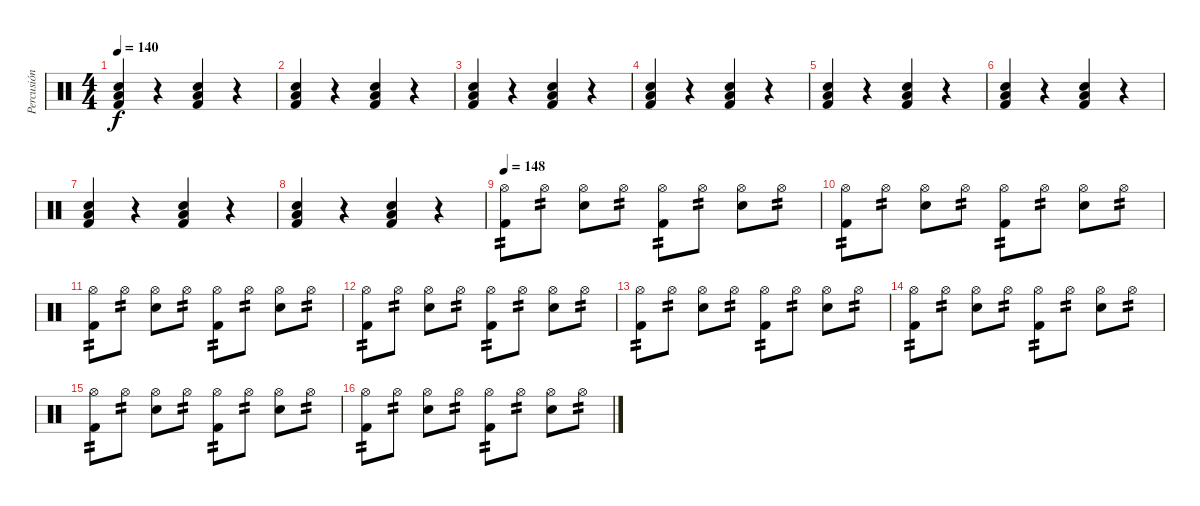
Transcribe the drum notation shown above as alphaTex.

\track ("Percusión" "Percusión") {instrument percussion}
\staff {score}
\articulation defaults
\ts (4 4)
\tempo 140
\clef neutral
\ks c
("Low Floor Tom (hit)" "Electric Snare (hit)" "Kick (hit) 2").4{dy f} r.4 ("Low Floor Tom (hit)" "Electric Snare (hit)" "Kick (hit) 2").4 r.4 |
("Low Floor Tom (hit)" "Electric Snare (hit)" "Kick (hit) 2").4 r.4 ("Low Floor Tom (hit)" "Electric Snare (hit)" "Kick (hit) 2").4 r.4 |
("Low Floor Tom (hit)" "Electric Snare (hit)" "Kick (hit) 2").4 r.4 ("Low Floor Tom (hit)" "Electric Snare (hit)" "Kick (hit) 2").4 r.4 |
("Low Floor Tom (hit)" "Electric Snare (hit)" "Kick (hit) 2").4 r.4 ("Low Floor Tom (hit)" "Electric Snare (hit)" "Kick (hit) 2").4 r.4 |
("Low Floor Tom (hit)" "Electric Snare (hit)" "Kick (hit) 2").4 r.4 ("Low Floor Tom (hit)" "Electric Snare (hit)" "Kick (hit) 2").4 r.4 |
("Low Floor Tom (hit)" "Electric Snare (hit)" "Kick (hit) 2").4 r.4 ("Low Floor Tom (hit)" "Electric Snare (hit)" "Kick (hit) 2").4 r.4 |
("Low Floor Tom (hit)" "Electric Snare (hit)" "Kick (hit) 2").4 r.4 ("Low Floor Tom (hit)" "Electric Snare (hit)" "Kick (hit) 2").4 r.4 |
("Low Floor Tom (hit)" "Electric Snare (hit)" "Kick (hit) 2").4 r.4 ("Low Floor Tom (hit)" "Electric Snare (hit)" "Kick (hit) 2").4 r.4 |
\tempo 148
("Hi-Hat (open)" "Kick (hit) 2").8{tp 2} "Hi-Hat (open)".8{tp 2} ("Hi-Hat (open)" "Electric Snare (hit)").8 "Hi-Hat (open)".8{tp 2} ("Hi-Hat (open)" "Kick (hit) 2").8{tp 2} "Hi-Hat (open)".8{tp 2} ("Hi-Hat (open)" "Electric Snare (hit)").8 "Hi-Hat (open)".8{tp 2} |
("Hi-Hat (open)" "Kick (hit) 2").8{tp 2} "Hi-Hat (open)".8{tp 2} ("Hi-Hat (open)" "Electric Snare (hit)").8 "Hi-Hat (open)".8{tp 2} ("Hi-Hat (open)" "Kick (hit) 2").8{tp 2} "Hi-Hat (open)".8{tp 2} ("Hi-Hat (open)" "Electric Snare (hit)").8 "Hi-Hat (open)".8{tp 2} |
("Hi-Hat (open)" "Kick (hit) 2").8{tp 2} "Hi-Hat (open)".8{tp 2} ("Hi-Hat (open)" "Electric Snare (hit)").8 "Hi-Hat (open)".8{tp 2} ("Hi-Hat (open)" "Kick (hit) 2").8{tp 2} "Hi-Hat (open)".8{tp 2} ("Hi-Hat (open)" "Electric Snare (hit)").8 "Hi-Hat (open)".8{tp 2} |
("Hi-Hat (open)" "Kick (hit) 2").8{tp 2} "Hi-Hat (open)".8{tp 2} ("Hi-Hat (open)" "Electric Snare (hit)").8 "Hi-Hat (open)".8{tp 2} ("Hi-Hat (open)" "Kick (hit) 2").8{tp 2} "Hi-Hat (open)".8{tp 2} ("Hi-Hat (open)" "Electric Snare (hit)").8 "Hi-Hat (open)".8{tp 2} |
("Hi-Hat (open)" "Kick (hit) 2").8{tp 2} "Hi-Hat (open)".8{tp 2} ("Hi-Hat (open)" "Electric Snare (hit)").8 "Hi-Hat (open)".8{tp 2} ("Hi-Hat (open)" "Kick (hit) 2").8{tp 2} "Hi-Hat (open)".8{tp 2} ("Hi-Hat (open)" "Electric Snare (hit)").8 "Hi-Hat (open)".8{tp 2} |
("Hi-Hat (open)" "Kick (hit) 2").8{tp 2} "Hi-Hat (open)".8{tp 2} ("Hi-Hat (open)" "Electric Snare (hit)").8 "Hi-Hat (open)".8{tp 2} ("Hi-Hat (open)" "Kick (hit) 2").8{tp 2} "Hi-Hat (open)".8{tp 2} ("Hi-Hat (open)" "Electric Snare (hit)").8 "Hi-Hat (open)".8{tp 2} |
("Hi-Hat (open)" "Kick (hit) 2").8{tp 2} "Hi-Hat (open)".8{tp 2} ("Hi-Hat (open)" "Electric Snare (hit)").8 "Hi-Hat (open)".8{tp 2} ("Hi-Hat (open)" "Kick (hit) 2").8{tp 2} "Hi-Hat (open)".8{tp 2} ("Hi-Hat (open)" "Electric Snare (hit)").8 "Hi-Hat (open)".8{tp 2} |
("Hi-Hat (open)" "Kick (hit) 2").8{tp 2} "Hi-Hat (open)".8{tp 2} ("Hi-Hat (open)" "Electric Snare (hit)").8 "Hi-Hat (open)".8{tp 2} ("Hi-Hat (open)" "Kick (hit) 2").8{tp 2} "Hi-Hat (open)".8{tp 2} ("Hi-Hat (open)" "Electric Snare (hit)").8 "Hi-Hat (open)".8{tp 2}
